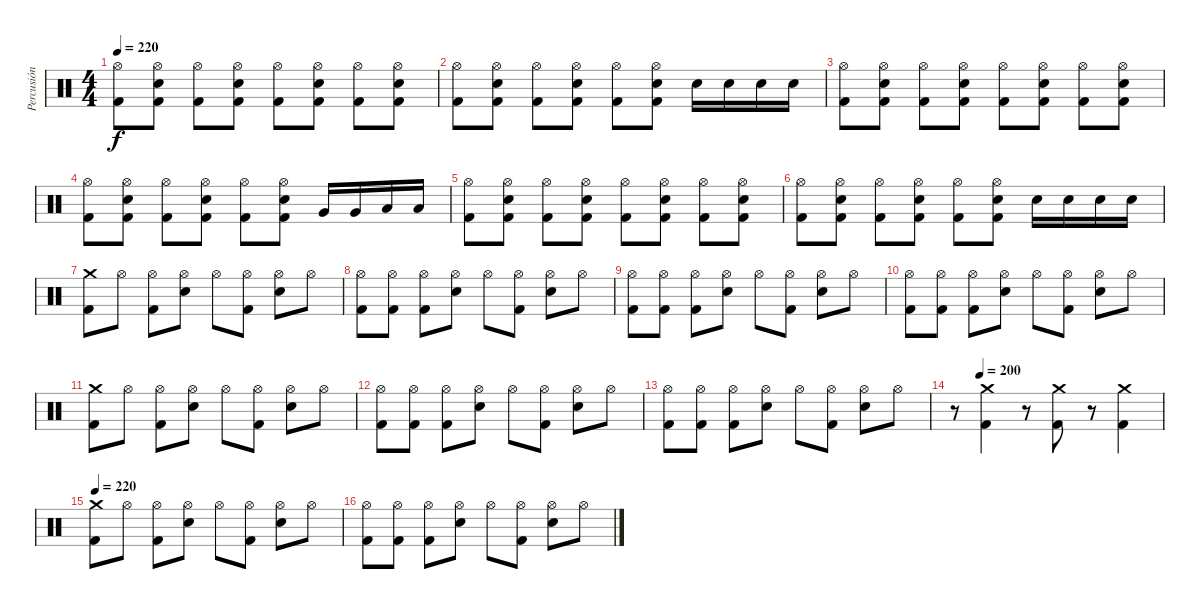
\track ("Percusión" "Percusión") {instrument percussion}
\staff {score}
\articulation defaults
\ts (4 4)
\tempo 220
\clef neutral
\ks c
("Hi-Hat (open)" "Kick (hit) 2").8{dy f} ("Hi-Hat (open)" "Snare (hit) 2" "Kick (hit) 2").8 ("Hi-Hat (open)" "Kick (hit) 2").8 ("Hi-Hat (open)" "Snare (hit) 2" "Kick (hit) 2").8 ("Hi-Hat (open)" "Kick (hit) 2").8 ("Hi-Hat (open)" "Snare (hit) 2" "Kick (hit) 2").8 ("Hi-Hat (open)" "Kick (hit) 2").8 ("Hi-Hat (open)" "Snare (hit) 2" "Kick (hit) 2").8 |
("Hi-Hat (open)" "Kick (hit) 2").8 ("Hi-Hat (open)" "Snare (hit) 2" "Kick (hit) 2").8 ("Hi-Hat (open)" "Kick (hit) 2").8 ("Hi-Hat (open)" "Snare (hit) 2" "Kick (hit) 2").8 ("Hi-Hat (open)" "Kick (hit) 2").8 ("Hi-Hat (open)" "Snare (hit) 2" "Kick (hit) 2").8 "Snare (hit) 2".16 "Snare (hit) 2".16 "Snare (hit) 2".16 "Snare (hit) 2".16 |
("Hi-Hat (open)" "Kick (hit) 2").8 ("Hi-Hat (open)" "Snare (hit) 2" "Kick (hit) 2").8 ("Hi-Hat (open)" "Kick (hit) 2").8 ("Hi-Hat (open)" "Snare (hit) 2" "Kick (hit) 2").8 ("Hi-Hat (open)" "Kick (hit) 2").8 ("Hi-Hat (open)" "Snare (hit) 2" "Kick (hit) 2").8 ("Hi-Hat (open)" "Kick (hit) 2").8 ("Hi-Hat (open)" "Snare (hit) 2" "Kick (hit) 2").8 |
("Hi-Hat (open)" "Kick (hit) 2").8 ("Hi-Hat (open)" "Snare (hit) 2" "Kick (hit) 2").8 ("Hi-Hat (open)" "Kick (hit) 2").8 ("Hi-Hat (open)" "Snare (hit) 2" "Kick (hit) 2").8 ("Hi-Hat (open)" "Kick (hit) 2").8 ("Hi-Hat (open)" "Snare (hit) 2" "Kick (hit) 2").8 "Very Low Tom (hit)".16 "Very Low Tom (hit)".16 "Low Tom (hit)".16 "Low Tom (hit)".16 |
("Hi-Hat (open)" "Kick (hit) 2").8 ("Hi-Hat (open)" "Snare (hit) 2" "Kick (hit) 2").8 ("Hi-Hat (open)" "Kick (hit) 2").8 ("Hi-Hat (open)" "Snare (hit) 2" "Kick (hit) 2").8 ("Hi-Hat (open)" "Kick (hit) 2").8 ("Hi-Hat (open)" "Snare (hit) 2" "Kick (hit) 2").8 ("Hi-Hat (open)" "Kick (hit) 2").8 ("Hi-Hat (open)" "Snare (hit) 2" "Kick (hit) 2").8 |
("Hi-Hat (open)" "Kick (hit) 2").8 ("Hi-Hat (open)" "Snare (hit) 2" "Kick (hit) 2").8 ("Hi-Hat (open)" "Kick (hit) 2").8 ("Hi-Hat (open)" "Snare (hit) 2" "Kick (hit) 2").8 ("Hi-Hat (open)" "Kick (hit) 2").8 ("Hi-Hat (open)" "Snare (hit) 2" "Kick (hit) 2").8 "Snare (hit) 2".16 "Snare (hit) 2".16 "Snare (hit) 2".16 "Snare (hit) 2".16 |
("Crash medium (hit)" "Kick (hit) 2").8 "Hi-Hat (open)".8 ("Hi-Hat (open)" "Kick (hit) 2").8 ("Hi-Hat (open)" "Snare (hit) 2").8 "Hi-Hat (open)".8 ("Hi-Hat (open)" "Kick (hit) 2").8 ("Hi-Hat (open)" "Snare (hit) 2").8 "Hi-Hat (open)".8 |
("Hi-Hat (open)" "Kick (hit) 2").8 ("Hi-Hat (open)" "Kick (hit) 2").8 ("Hi-Hat (open)" "Kick (hit) 2").8 ("Hi-Hat (open)" "Snare (hit) 2").8 "Hi-Hat (open)".8 ("Hi-Hat (open)" "Kick (hit) 2").8 ("Hi-Hat (open)" "Snare (hit) 2").8 "Hi-Hat (open)".8 |
("Hi-Hat (open)" "Kick (hit) 2").8 ("Hi-Hat (open)" "Kick (hit) 2").8 ("Hi-Hat (open)" "Kick (hit) 2").8 ("Hi-Hat (open)" "Snare (hit) 2").8 "Hi-Hat (open)".8 ("Hi-Hat (open)" "Kick (hit) 2").8 ("Hi-Hat (open)" "Snare (hit) 2").8 "Hi-Hat (open)".8 |
("Hi-Hat (open)" "Kick (hit) 2").8 ("Hi-Hat (open)" "Kick (hit) 2").8 ("Hi-Hat (open)" "Kick (hit) 2").8 ("Hi-Hat (open)" "Snare (hit) 2").8 "Hi-Hat (open)".8 ("Hi-Hat (open)" "Kick (hit) 2").8 ("Hi-Hat (open)" "Snare (hit) 2").8 "Hi-Hat (open)".8 |
("Crash medium (hit)" "Kick (hit) 2").8 "Hi-Hat (open)".8 ("Hi-Hat (open)" "Kick (hit) 2").8 ("Hi-Hat (open)" "Snare (hit) 2").8 "Hi-Hat (open)".8 ("Hi-Hat (open)" "Kick (hit) 2").8 ("Hi-Hat (open)" "Snare (hit) 2").8 "Hi-Hat (open)".8 |
("Hi-Hat (open)" "Kick (hit) 2").8 ("Hi-Hat (open)" "Kick (hit) 2").8 ("Hi-Hat (open)" "Kick (hit) 2").8 ("Hi-Hat (open)" "Snare (hit) 2").8 "Hi-Hat (open)".8 ("Hi-Hat (open)" "Kick (hit) 2").8 ("Hi-Hat (open)" "Snare (hit) 2").8 "Hi-Hat (open)".8 |
("Hi-Hat (open)" "Kick (hit) 2").8 ("Hi-Hat (open)" "Kick (hit) 2").8 ("Hi-Hat (open)" "Kick (hit) 2").8 ("Hi-Hat (open)" "Snare (hit) 2").8 "Hi-Hat (open)".8 ("Hi-Hat (open)" "Kick (hit) 2").8 ("Hi-Hat (open)" "Snare (hit) 2").8 "Hi-Hat (open)".8 |
\tempo (200 0.125)
r.8 ("Crash medium (hit)" "Kick (hit) 2").4 r.8 ("Crash medium (hit)" "Kick (hit) 2").8 r.8 ("Crash medium (hit)" "Kick (hit) 2").4 |
\tempo 220
("Crash medium (hit)" "Kick (hit) 2").8 "Hi-Hat (open)".8 ("Hi-Hat (open)" "Kick (hit) 2").8 ("Hi-Hat (open)" "Snare (hit) 2").8 "Hi-Hat (open)".8 ("Hi-Hat (open)" "Kick (hit) 2").8 ("Hi-Hat (open)" "Snare (hit) 2").8 "Hi-Hat (open)".8 |
("Hi-Hat (open)" "Kick (hit) 2").8 ("Hi-Hat (open)" "Kick (hit) 2").8 ("Hi-Hat (open)" "Kick (hit) 2").8 ("Hi-Hat (open)" "Snare (hit) 2").8 "Hi-Hat (open)".8 ("Hi-Hat (open)" "Kick (hit) 2").8 ("Hi-Hat (open)" "Snare (hit) 2").8 "Hi-Hat (open)".8
